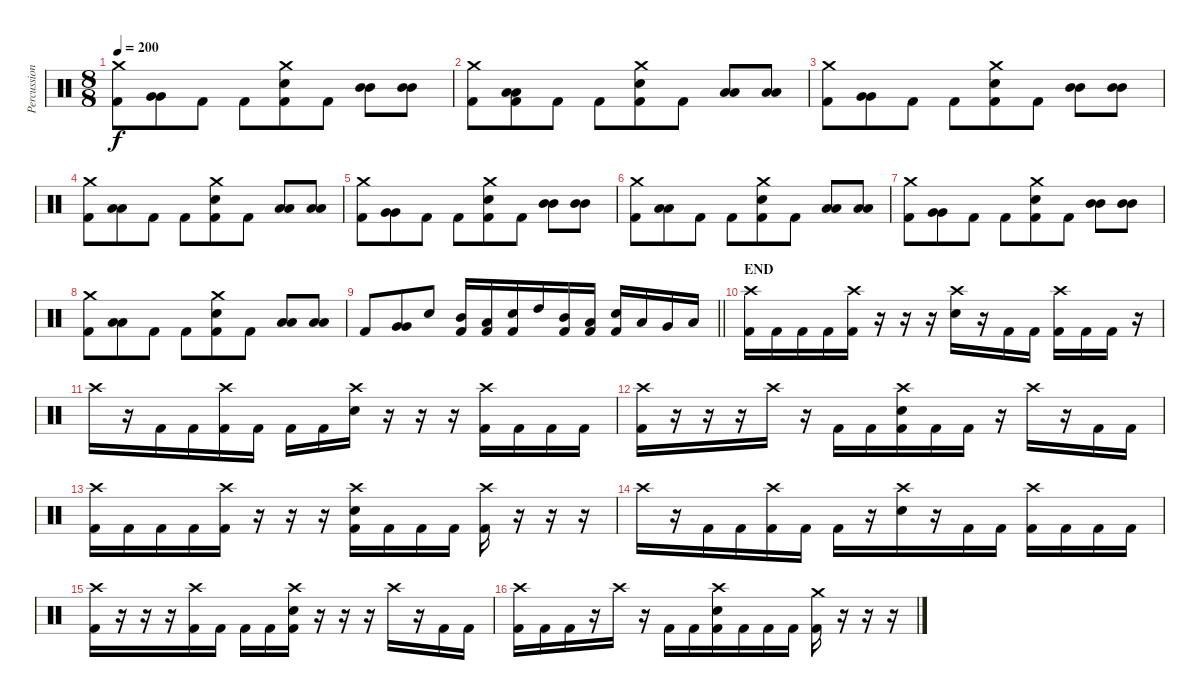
\track ("Percussions" "Percussion") {instrument percussion}
\staff {score}
\articulation defaults
\ts (8 8)
\tempo 200
\clef neutral
\ks c
("Crash medium (hit)" "Kick (hit) 2").8{dy f} ("Very Low Tom (hit)" "Very Low Tom (hit)").8 "Kick (hit) 2".8 "Kick (hit) 2".8 ("Crash medium (hit)" "Electric Snare (hit)" "Kick (hit) 2").8 "Kick (hit) 2".8 ("Mid Tom (hit)" "Mid Tom (hit)").8 ("Mid Tom (hit)" "Mid Tom (hit)").8 |
("Crash medium (hit)" "Kick (hit) 2").8 ("Low Tom (hit)" "Low Tom (hit)" "Kick (hit) 2").8 "Kick (hit) 2".8 "Kick (hit) 2".8 ("Crash medium (hit)" "Electric Snare (hit)" "Kick (hit) 2").8 "Kick (hit) 2".8 ("Low Tom (hit)" "Low Tom (hit)").8 ("Low Tom (hit)" "Low Tom (hit)").8 |
("Crash medium (hit)" "Kick (hit) 2").8 ("Very Low Tom (hit)" "Very Low Tom (hit)").8 "Kick (hit) 2".8 "Kick (hit) 2".8 ("Crash medium (hit)" "Electric Snare (hit)" "Kick (hit) 2").8 "Kick (hit) 2".8 ("Mid Tom (hit)" "Mid Tom (hit)").8 ("Mid Tom (hit)" "Mid Tom (hit)").8 |
("Crash medium (hit)" "Kick (hit) 2").8 ("Low Tom (hit)" "Low Tom (hit)").8 "Kick (hit) 2".8 "Kick (hit) 2".8 ("Crash medium (hit)" "Electric Snare (hit)" "Kick (hit) 2").8 "Kick (hit) 2".8 ("Low Tom (hit)" "Low Tom (hit)").8 ("Low Tom (hit)" "Low Tom (hit)").8 |
("Crash medium (hit)" "Kick (hit) 2").8 ("Very Low Tom (hit)" "Very Low Tom (hit)").8 "Kick (hit) 2".8 "Kick (hit) 2".8 ("Crash medium (hit)" "Electric Snare (hit)" "Kick (hit) 2").8 "Kick (hit) 2".8 ("Mid Tom (hit)" "Mid Tom (hit)").8 ("Mid Tom (hit)" "Mid Tom (hit)").8 |
("Crash medium (hit)" "Kick (hit) 2").8 ("Low Tom (hit)" "Low Tom (hit)").8 "Kick (hit) 2".8 "Kick (hit) 2".8 ("Crash medium (hit)" "Electric Snare (hit)" "Kick (hit) 2").8 "Kick (hit) 2".8 ("Low Tom (hit)" "Low Tom (hit)").8 ("Low Tom (hit)" "Low Tom (hit)").8 |
("Crash medium (hit)" "Kick (hit) 2").8 ("Very Low Tom (hit)" "Very Low Tom (hit)").8 "Kick (hit) 2".8 "Kick (hit) 2".8 ("Crash medium (hit)" "Electric Snare (hit)" "Kick (hit) 2").8 "Kick (hit) 2".8 ("Mid Tom (hit)" "Mid Tom (hit)").8 ("Mid Tom (hit)" "Mid Tom (hit)").8 |
("Crash medium (hit)" "Kick (hit) 2").8 ("Low Tom (hit)" "Low Tom (hit)").8 "Kick (hit) 2".8 "Kick (hit) 2".8 ("Crash medium (hit)" "Electric Snare (hit)" "Kick (hit) 2").8 "Kick (hit) 2".8 ("Low Tom (hit)" "Low Tom (hit)").8 ("Low Tom (hit)" "Low Tom (hit)").8 |
\barLineRight lightlight "Kick (hit) 2".8
("Very Low Tom (hit)" "Very Low Tom (hit)").8 "Electric Snare (hit)".8 ("Mid Tom (hit)" "Kick (hit) 2").16 ("Low Tom (hit)" "Kick (hit) 2").16 ("Electric Snare (hit)" "Kick (hit) 2").16 "High Tom (hit)".16 ("Mid Tom (hit)" "Kick (hit) 2").16 ("Low Tom (hit)" "Kick (hit) 2").16 ("Electric Snare (hit)" "Kick (hit) 2").16 "Low Tom (hit)".16 "Very Low Tom (hit)".16 "Low Floor Tom (hit)".16 |
\section ("" "END")
("Crash high (hit)" "Kick (hit) 2").16 "Kick (hit) 2".16 "Kick (hit) 2".16 "Kick (hit) 2".16 ("Crash high (hit)" "Kick (hit) 2").16 r.16 r.16 r.16 ("Crash high (hit)" "Electric Snare (hit)").16 r.16 "Kick (hit) 2".16 "Kick (hit) 2".16 ("Crash high (hit)" "Kick (hit) 2").16 "Kick (hit) 2".16 "Kick (hit) 2".16 r.16 |
"Crash high (hit)".16 r.16 "Kick (hit) 2".16 "Kick (hit) 2".16 ("Crash high (hit)" "Kick (hit) 2").16 "Kick (hit) 2".16 "Kick (hit) 2".16 "Kick (hit) 2".16 ("Crash high (hit)" "Electric Snare (hit)").16 r.16 r.16 r.16 ("Crash high (hit)" "Kick (hit) 2").16 "Kick (hit) 2".16 "Kick (hit) 2".16 "Kick (hit) 2".16 |
("Crash high (hit)" "Kick (hit) 2").16 r.16 r.16 r.16 "Crash high (hit)".16 r.16 "Kick (hit) 2".16 "Kick (hit) 2".16 ("Crash high (hit)" "Electric Snare (hit)" "Kick (hit) 2").16 "Kick (hit) 2".16 "Kick (hit) 2".16 r.16 "Crash high (hit)".16 r.16 "Kick (hit) 2".16 "Kick (hit) 2".16 |
("Crash high (hit)" "Kick (hit) 2").16 "Kick (hit) 2".16 "Kick (hit) 2".16 "Kick (hit) 2".16 ("Crash high (hit)" "Kick (hit) 2").16 r.16 r.16 r.16 ("Crash high (hit)" "Electric Snare (hit)" "Kick (hit) 2").16 "Kick (hit) 2".16 "Kick (hit) 2".16 "Kick (hit) 2".16 ("Crash high (hit)" "Kick (hit) 2").16 r.16 r.16 r.16 |
"Crash high (hit)".16 r.16 "Kick (hit) 2".16 "Kick (hit) 2".16 ("Crash high (hit)" "Kick (hit) 2").16 "Kick (hit) 2".16 "Kick (hit) 2".16 r.16 ("Crash high (hit)" "Electric Snare (hit)").16 r.16 "Kick (hit) 2".16 "Kick (hit) 2".16 ("Crash high (hit)" "Kick (hit) 2").16 "Kick (hit) 2".16 "Kick (hit) 2".16 "Kick (hit) 2".16 |
("Crash high (hit)" "Kick (hit) 2").16 r.16 r.16 r.16 ("Crash high (hit)" "Kick (hit) 2").16 "Kick (hit) 2".16 "Kick (hit) 2".16 "Kick (hit) 2".16 ("Crash high (hit)" "Electric Snare (hit)" "Kick (hit) 2").16 r.16 r.16 r.16 "Crash high (hit)".16 r.16 "Kick (hit) 2".16 "Kick (hit) 2".16 |
("Crash high (hit)" "Kick (hit) 2").16 "Kick (hit) 2".16 "Kick (hit) 2".16 r.16 "Crash high (hit)".16 r.16 "Kick (hit) 2".16 "Kick (hit) 2".16 ("Crash high (hit)" "Electric Snare (hit)" "Kick (hit) 2").16 "Kick (hit) 2".16 "Kick (hit) 2".16 "Kick (hit) 2".16 ("Crash medium (hit)" "Kick (hit) 2").16 r.16 r.16 r.16
